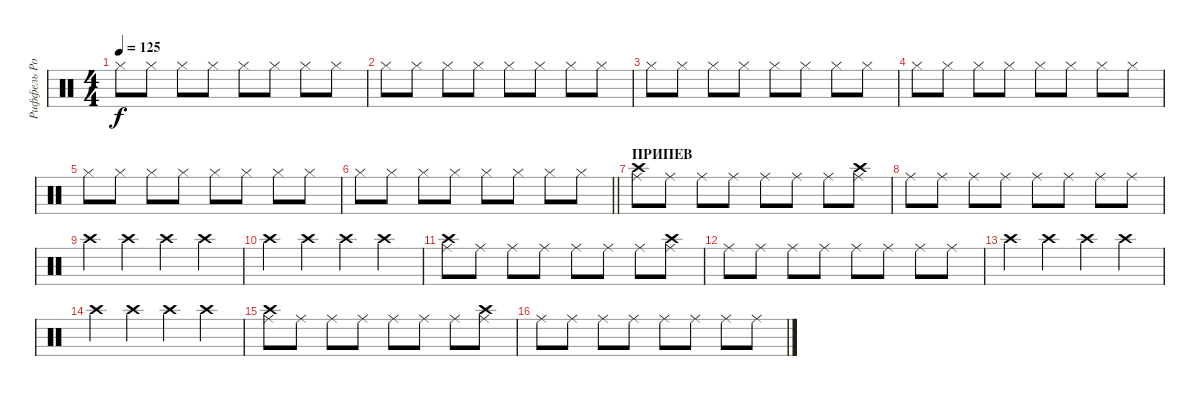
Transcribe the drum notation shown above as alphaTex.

\track ("Риффель Роман(хэты)" "Риффель Ро") {instrument percussion}
\staff {score}
\articulation defaults
\ts (4 4)
\tempo 125
\clef neutral
\ks c "Hi-Hat (closed)".8{dy f} "Hi-Hat (closed)".8 "Hi-Hat (closed)".8 "Hi-Hat (closed)".8 "Hi-Hat (closed)".8 "Hi-Hat (closed)".8 "Hi-Hat (closed)".8 "Hi-Hat (closed)".8
|
"Hi-Hat (closed)".8 "Hi-Hat (closed)".8 "Hi-Hat (closed)".8 "Hi-Hat (closed)".8 "Hi-Hat (closed)".8 "Hi-Hat (closed)".8 "Hi-Hat (closed)".8 "Hi-Hat (closed)".8 |
"Hi-Hat (closed)".8 "Hi-Hat (closed)".8 "Hi-Hat (closed)".8 "Hi-Hat (closed)".8 "Hi-Hat (closed)".8 "Hi-Hat (closed)".8 "Hi-Hat (closed)".8 "Hi-Hat (closed)".8 |
"Hi-Hat (closed)".8 "Hi-Hat (closed)".8 "Hi-Hat (closed)".8 "Hi-Hat (closed)".8 "Hi-Hat (closed)".8 "Hi-Hat (closed)".8 "Hi-Hat (closed)".8 "Hi-Hat (closed)".8 |
"Hi-Hat (closed)".8 "Hi-Hat (closed)".8 "Hi-Hat (closed)".8 "Hi-Hat (closed)".8 "Hi-Hat (closed)".8 "Hi-Hat (closed)".8 "Hi-Hat (closed)".8 "Hi-Hat (closed)".8 |
\barLineRight lightlight "Hi-Hat (closed)".8 "Hi-Hat (closed)".8 "Hi-Hat (closed)".8 "Hi-Hat (closed)".8 "Hi-Hat (closed)".8 "Hi-Hat (closed)".8 "Hi-Hat (closed)".8 "Hi-Hat (closed)".8
|
\section ("" "ПРИПЕВ")
("Ride (middle)" "Crash high (hit)").8 "Ride (middle)".8 "Ride (middle)".8 "Ride (middle)".8 "Ride (middle)".8 "Ride (middle)".8 "Ride (middle)".8 ("Ride (middle)" "Crash high (hit)").8 |
"Ride (middle)".8 "Ride (middle)".8 "Ride (middle)".8 "Ride (middle)".8 "Ride (middle)".8 "Ride (middle)".8 "Ride (middle)".8 "Ride (middle)".8 |
"Crash high (hit)".4 "Crash high (hit)".4 "Crash high (hit)".4 "Crash high (hit)".4 |
"Crash high (hit)".4 "Crash high (hit)".4 "Crash high (hit)".4 "Crash high (hit)".4 |
("Ride (middle)" "Crash high (hit)").8 "Ride (middle)".8 "Ride (middle)".8 "Ride (middle)".8 "Ride (middle)".8 "Ride (middle)".8 "Ride (middle)".8 ("Ride (middle)" "Crash high (hit)").8 |
"Ride (middle)".8 "Ride (middle)".8 "Ride (middle)".8 "Ride (middle)".8 "Ride (middle)".8 "Ride (middle)".8 "Ride (middle)".8 "Ride (middle)".8 |
"Crash high (hit)".4 "Crash high (hit)".4 "Crash high (hit)".4 "Crash high (hit)".4 |
"Crash high (hit)".4 "Crash high (hit)".4 "Crash high (hit)".4 "Crash high (hit)".4 |
("Ride (middle)" "Crash high (hit)").8 "Ride (middle)".8 "Ride (middle)".8 "Ride (middle)".8 "Ride (middle)".8 "Ride (middle)".8 "Ride (middle)".8 ("Ride (middle)" "Crash high (hit)").8 |
"Ride (middle)".8 "Ride (middle)".8 "Ride (middle)".8 "Ride (middle)".8 "Ride (middle)".8 "Ride (middle)".8 "Ride (middle)".8 "Ride (middle)".8
